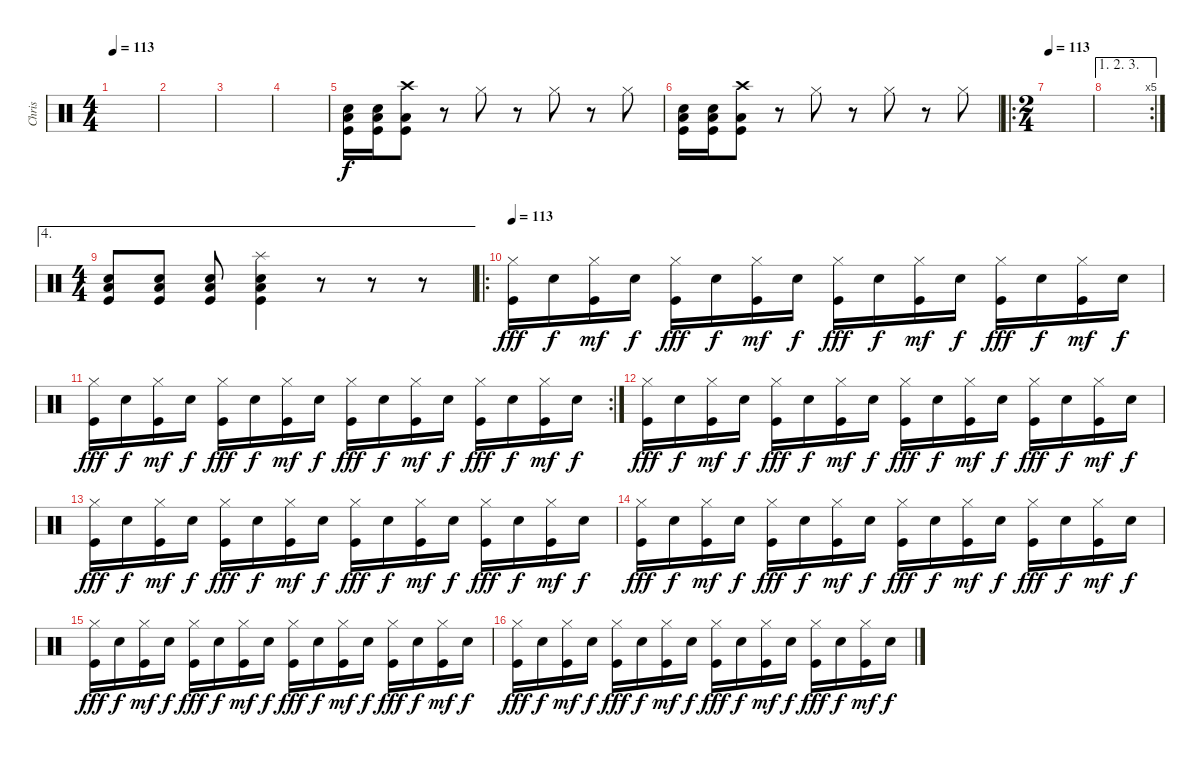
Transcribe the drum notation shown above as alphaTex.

\track ("Chris" "Chris") {instrument percussion}
\staff {score}
\articulation defaults
\ts (4 4)
\tempo 113
\tempo 60
\tempo 113
\clef neutral
\ks c
|
|
|
|
("Electric Snare (hit)" "Low Floor Tom (hit)" "Kick (hit)").16 ("Electric Snare (hit)" "Low Floor Tom (hit)" "Kick (hit)").16 ("Crash high (hit)" "Low Floor Tom (hit)" "Kick (hit)").8 r.8 "Hi-Hat (closed)".8 r.8 "Hi-Hat (closed)".8 r.8 "Hi-Hat (closed)".8 |
("Electric Snare (hit)" "Low Floor Tom (hit)" "Kick (hit)").16 ("Electric Snare (hit)" "Low Floor Tom (hit)" "Kick (hit)").16 ("Crash high (hit)" "Low Floor Tom (hit)" "Kick (hit)").8 r.8 "Hi-Hat (closed)".8 r.8 "Hi-Hat (closed)".8 r.8 "Hi-Hat (closed)".8 |
\ro
\ts (2 4)
\tempo 113
|
\ae (1 2 3)
\rc 5
|
\ae 4
\ts (4 4)
("Electric Snare (hit)" "Low Floor Tom (hit)" "Kick (hit)").8 ("Electric Snare (hit)" "Low Floor Tom (hit)" "Kick (hit)").8 ("Electric Snare (hit)" "Low Floor Tom (hit)" "Kick (hit)").8 ("Splash (hit)" "Electric Snare (hit)" "Low Floor Tom (hit)" "Kick (hit)").4 r.8 r.8 r.8 |
\ro
\tempo 113
("Hi-Hat (closed)" "Kick (hit)").16{dy fff} "Electric Snare (hit)".16{dy f} ("Hi-Hat (closed)" "Kick (hit)").16{dy mf} "Electric Snare (hit)".16{dy f} ("Hi-Hat (closed)" "Kick (hit)").16{dy fff} "Electric Snare (hit)".16{dy f} ("Hi-Hat (closed)" "Kick (hit)").16{dy mf} "Electric Snare (hit)".16{dy f} ("Hi-Hat (closed)" "Kick (hit)").16{dy fff} "Electric Snare (hit)".16{dy f} ("Hi-Hat (closed)" "Kick (hit)").16{dy mf} "Electric Snare (hit)".16{dy f} ("Hi-Hat (closed)" "Kick (hit)").16{dy fff} "Electric Snare (hit)".16{dy f} ("Hi-Hat (closed)" "Kick (hit)").16{dy mf} "Electric Snare (hit)".16{dy f} |
\rc 2
("Hi-Hat (closed)" "Kick (hit)").16{dy fff} "Electric Snare (hit)".16{dy f} ("Hi-Hat (closed)" "Kick (hit)").16{dy mf} "Electric Snare (hit)".16{dy f} ("Hi-Hat (closed)" "Kick (hit)").16{dy fff} "Electric Snare (hit)".16{dy f} ("Hi-Hat (closed)" "Kick (hit)").16{dy mf} "Electric Snare (hit)".16{dy f} ("Hi-Hat (closed)" "Kick (hit)").16{dy fff} "Electric Snare (hit)".16{dy f} ("Hi-Hat (closed)" "Kick (hit)").16{dy mf} "Electric Snare (hit)".16{dy f} ("Hi-Hat (closed)" "Kick (hit)").16{dy fff} "Electric Snare (hit)".16{dy f} ("Hi-Hat (closed)" "Kick (hit)").16{dy mf} "Electric Snare (hit)".16{dy f} |
("Hi-Hat (closed)" "Kick (hit)").16{dy fff} "Electric Snare (hit)".16{dy f} ("Hi-Hat (closed)" "Kick (hit)").16{dy mf} "Electric Snare (hit)".16{dy f} ("Hi-Hat (closed)" "Kick (hit)").16{dy fff} "Electric Snare (hit)".16{dy f} ("Hi-Hat (closed)" "Kick (hit)").16{dy mf} "Electric Snare (hit)".16{dy f} ("Hi-Hat (closed)" "Kick (hit)").16{dy fff} "Electric Snare (hit)".16{dy f} ("Hi-Hat (closed)" "Kick (hit)").16{dy mf} "Electric Snare (hit)".16{dy f} ("Hi-Hat (closed)" "Kick (hit)").16{dy fff} "Electric Snare (hit)".16{dy f} ("Hi-Hat (closed)" "Kick (hit)").16{dy mf} "Electric Snare (hit)".16{dy f} |
("Hi-Hat (closed)" "Kick (hit)").16{dy fff} "Electric Snare (hit)".16{dy f} ("Hi-Hat (closed)" "Kick (hit)").16{dy mf} "Electric Snare (hit)".16{dy f} ("Hi-Hat (closed)" "Kick (hit)").16{dy fff} "Electric Snare (hit)".16{dy f} ("Hi-Hat (closed)" "Kick (hit)").16{dy mf} "Electric Snare (hit)".16{dy f} ("Hi-Hat (closed)" "Kick (hit)").16{dy fff} "Electric Snare (hit)".16{dy f} ("Hi-Hat (closed)" "Kick (hit)").16{dy mf} "Electric Snare (hit)".16{dy f} ("Hi-Hat (closed)" "Kick (hit)").16{dy fff} "Electric Snare (hit)".16{dy f} ("Hi-Hat (closed)" "Kick (hit)").16{dy mf} "Electric Snare (hit)".16{dy f} |
("Hi-Hat (closed)" "Kick (hit)").16{dy fff} "Electric Snare (hit)".16{dy f} ("Hi-Hat (closed)" "Kick (hit)").16{dy mf} "Electric Snare (hit)".16{dy f} ("Hi-Hat (closed)" "Kick (hit)").16{dy fff} "Electric Snare (hit)".16{dy f} ("Hi-Hat (closed)" "Kick (hit)").16{dy mf} "Electric Snare (hit)".16{dy f} ("Hi-Hat (closed)" "Kick (hit)").16{dy fff} "Electric Snare (hit)".16{dy f} ("Hi-Hat (closed)" "Kick (hit)").16{dy mf} "Electric Snare (hit)".16{dy f} ("Hi-Hat (closed)" "Kick (hit)").16{dy fff} "Electric Snare (hit)".16{dy f} ("Hi-Hat (closed)" "Kick (hit)").16{dy mf} "Electric Snare (hit)".16{dy f} |
("Hi-Hat (closed)" "Kick (hit)").16{dy fff} "Electric Snare (hit)".16{dy f} ("Hi-Hat (closed)" "Kick (hit)").16{dy mf} "Electric Snare (hit)".16{dy f} ("Hi-Hat (closed)" "Kick (hit)").16{dy fff} "Electric Snare (hit)".16{dy f} ("Hi-Hat (closed)" "Kick (hit)").16{dy mf} "Electric Snare (hit)".16{dy f} ("Hi-Hat (closed)" "Kick (hit)").16{dy fff} "Electric Snare (hit)".16{dy f} ("Hi-Hat (closed)" "Kick (hit)").16{dy mf} "Electric Snare (hit)".16{dy f} ("Hi-Hat (closed)" "Kick (hit)").16{dy fff} "Electric Snare (hit)".16{dy f} ("Hi-Hat (closed)" "Kick (hit)").16{dy mf} "Electric Snare (hit)".16{dy f} |
("Hi-Hat (closed)" "Kick (hit)").16{dy fff} "Electric Snare (hit)".16{dy f} ("Hi-Hat (closed)" "Kick (hit)").16{dy mf} "Electric Snare (hit)".16{dy f} ("Hi-Hat (closed)" "Kick (hit)").16{dy fff} "Electric Snare (hit)".16{dy f} ("Hi-Hat (closed)" "Kick (hit)").16{dy mf} "Electric Snare (hit)".16{dy f} ("Hi-Hat (closed)" "Kick (hit)").16{dy fff} "Electric Snare (hit)".16{dy f} ("Hi-Hat (closed)" "Kick (hit)").16{dy mf} "Electric Snare (hit)".16{dy f} ("Hi-Hat (closed)" "Kick (hit)").16{dy fff} "Electric Snare (hit)".16{dy f} ("Hi-Hat (closed)" "Kick (hit)").16{dy mf} "Electric Snare (hit)".16{dy f}
